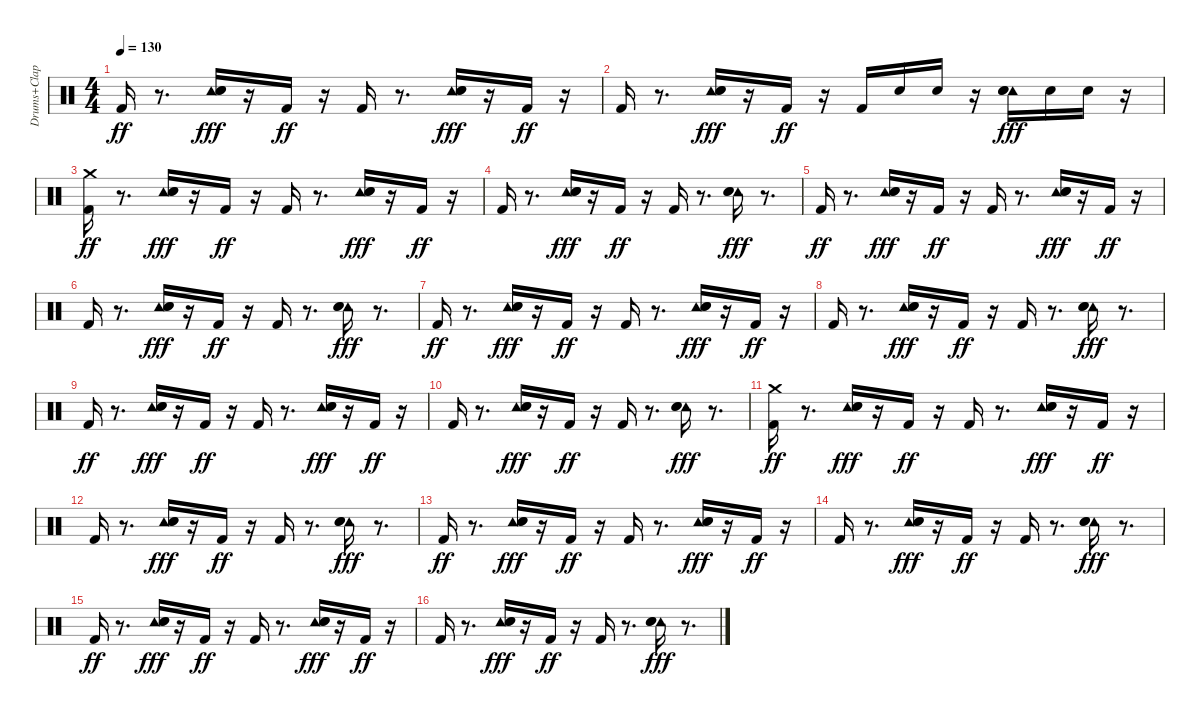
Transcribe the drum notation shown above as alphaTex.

\track ("Drums+Clap" "Drums+Clap") {instrument percussion}
\staff {score}
\articulation defaults
\ts (4 4)
\tempo 130
\clef neutral
\ks c "Kick (hit) 2".16{dy ff}
r.8{d} ("Tambourine (hit)" "Electric Snare (hit)" "Hand Clap (hit)").16{dy fff} r.16 "Kick (hit) 2".16{dy ff} r.16 "Kick (hit) 2".16 r.8{d} ("Tambourine (hit)" "Electric Snare (hit)" "Hand Clap (hit)").16{dy fff} r.16 "Kick (hit) 2".16{dy ff} r.16 |
"Kick (hit) 2".16 r.8{d} ("Tambourine (hit)" "Electric Snare (hit)" "Hand Clap (hit)").16{dy fff} r.16 "Kick (hit) 2".16{dy ff} r.16 "Kick (hit) 2".16 "Electric Snare (hit)".16 "Electric Snare (hit)".16 r.16 ("Tambourine (hit)" "Electric Snare (hit)" "Hand Clap (hit)").16{dy fff} "Electric Snare (hit)".16 "Electric Snare (hit)".16 r.16 |
("Crash medium (hit)" "Kick (hit) 2").16{dy ff} r.8{d} ("Tambourine (hit)" "Electric Snare (hit)" "Hand Clap (hit)").16{dy fff} r.16 "Kick (hit) 2".16{dy ff} r.16 "Kick (hit) 2".16 r.8{d} ("Tambourine (hit)" "Electric Snare (hit)" "Hand Clap (hit)").16{dy fff} r.16 "Kick (hit) 2".16{dy ff} r.16 |
"Kick (hit) 2".16 r.8{d} ("Tambourine (hit)" "Electric Snare (hit)" "Hand Clap (hit)").16{dy fff} r.16 "Kick (hit) 2".16{dy ff} r.16 "Kick (hit) 2".16 r.8{d} ("Tambourine (hit)" "Electric Snare (hit)" "Hand Clap (hit)").16{dy fff} r.8{d} |
"Kick (hit) 2".16{dy ff} r.8{d} ("Tambourine (hit)" "Electric Snare (hit)" "Hand Clap (hit)").16{dy fff} r.16 "Kick (hit) 2".16{dy ff} r.16 "Kick (hit) 2".16 r.8{d} ("Tambourine (hit)" "Electric Snare (hit)" "Hand Clap (hit)").16{dy fff} r.16 "Kick (hit) 2".16{dy ff} r.16 |
"Kick (hit) 2".16 r.8{d} ("Tambourine (hit)" "Electric Snare (hit)" "Hand Clap (hit)").16{dy fff} r.16 "Kick (hit) 2".16{dy ff} r.16 "Kick (hit) 2".16 r.8{d} ("Tambourine (hit)" "Electric Snare (hit)" "Hand Clap (hit)").16{dy fff} r.8{d} |
"Kick (hit) 2".16{dy ff} r.8{d} ("Tambourine (hit)" "Electric Snare (hit)" "Hand Clap (hit)").16{dy fff} r.16 "Kick (hit) 2".16{dy ff} r.16 "Kick (hit) 2".16 r.8{d} ("Tambourine (hit)" "Electric Snare (hit)" "Hand Clap (hit)").16{dy fff} r.16 "Kick (hit) 2".16{dy ff} r.16 |
"Kick (hit) 2".16 r.8{d} ("Tambourine (hit)" "Electric Snare (hit)" "Hand Clap (hit)").16{dy fff} r.16 "Kick (hit) 2".16{dy ff} r.16 "Kick (hit) 2".16 r.8{d} ("Tambourine (hit)" "Electric Snare (hit)" "Hand Clap (hit)").16{dy fff} r.8{d} |
"Kick (hit) 2".16{dy ff} r.8{d} ("Tambourine (hit)" "Electric Snare (hit)" "Hand Clap (hit)").16{dy fff} r.16 "Kick (hit) 2".16{dy ff} r.16 "Kick (hit) 2".16 r.8{d} ("Tambourine (hit)" "Electric Snare (hit)" "Hand Clap (hit)").16{dy fff} r.16 "Kick (hit) 2".16{dy ff} r.16 |
"Kick (hit) 2".16 r.8{d} ("Tambourine (hit)" "Electric Snare (hit)" "Hand Clap (hit)").16{dy fff} r.16 "Kick (hit) 2".16{dy ff} r.16 "Kick (hit) 2".16 r.8{d} ("Tambourine (hit)" "Electric Snare (hit)" "Hand Clap (hit)").16{dy fff} r.8{d} |
("Crash medium (hit)" "Kick (hit) 2").16{dy ff} r.8{d} ("Tambourine (hit)" "Electric Snare (hit)" "Hand Clap (hit)").16{dy fff} r.16 "Kick (hit) 2".16{dy ff} r.16 "Kick (hit) 2".16 r.8{d} ("Tambourine (hit)" "Electric Snare (hit)" "Hand Clap (hit)").16{dy fff} r.16 "Kick (hit) 2".16{dy ff} r.16 |
"Kick (hit) 2".16 r.8{d} ("Tambourine (hit)" "Electric Snare (hit)" "Hand Clap (hit)").16{dy fff} r.16 "Kick (hit) 2".16{dy ff} r.16 "Kick (hit) 2".16 r.8{d} ("Tambourine (hit)" "Electric Snare (hit)" "Hand Clap (hit)").16{dy fff} r.8{d} |
"Kick (hit) 2".16{dy ff} r.8{d} ("Tambourine (hit)" "Electric Snare (hit)" "Hand Clap (hit)").16{dy fff} r.16 "Kick (hit) 2".16{dy ff} r.16 "Kick (hit) 2".16 r.8{d} ("Tambourine (hit)" "Electric Snare (hit)" "Hand Clap (hit)").16{dy fff} r.16 "Kick (hit) 2".16{dy ff} r.16 |
"Kick (hit) 2".16 r.8{d} ("Tambourine (hit)" "Electric Snare (hit)" "Hand Clap (hit)").16{dy fff} r.16 "Kick (hit) 2".16{dy ff} r.16 "Kick (hit) 2".16 r.8{d} ("Tambourine (hit)" "Electric Snare (hit)" "Hand Clap (hit)").16{dy fff} r.8{d} |
"Kick (hit) 2".16{dy ff} r.8{d} ("Tambourine (hit)" "Electric Snare (hit)" "Hand Clap (hit)").16{dy fff} r.16 "Kick (hit) 2".16{dy ff} r.16 "Kick (hit) 2".16 r.8{d} ("Tambourine (hit)" "Electric Snare (hit)" "Hand Clap (hit)").16{dy fff} r.16 "Kick (hit) 2".16{dy ff} r.16 |
"Kick (hit) 2".16 r.8{d} ("Tambourine (hit)" "Electric Snare (hit)" "Hand Clap (hit)").16{dy fff} r.16 "Kick (hit) 2".16{dy ff} r.16 "Kick (hit) 2".16 r.8{d} ("Tambourine (hit)" "Electric Snare (hit)" "Hand Clap (hit)").16{dy fff} r.8{d}
